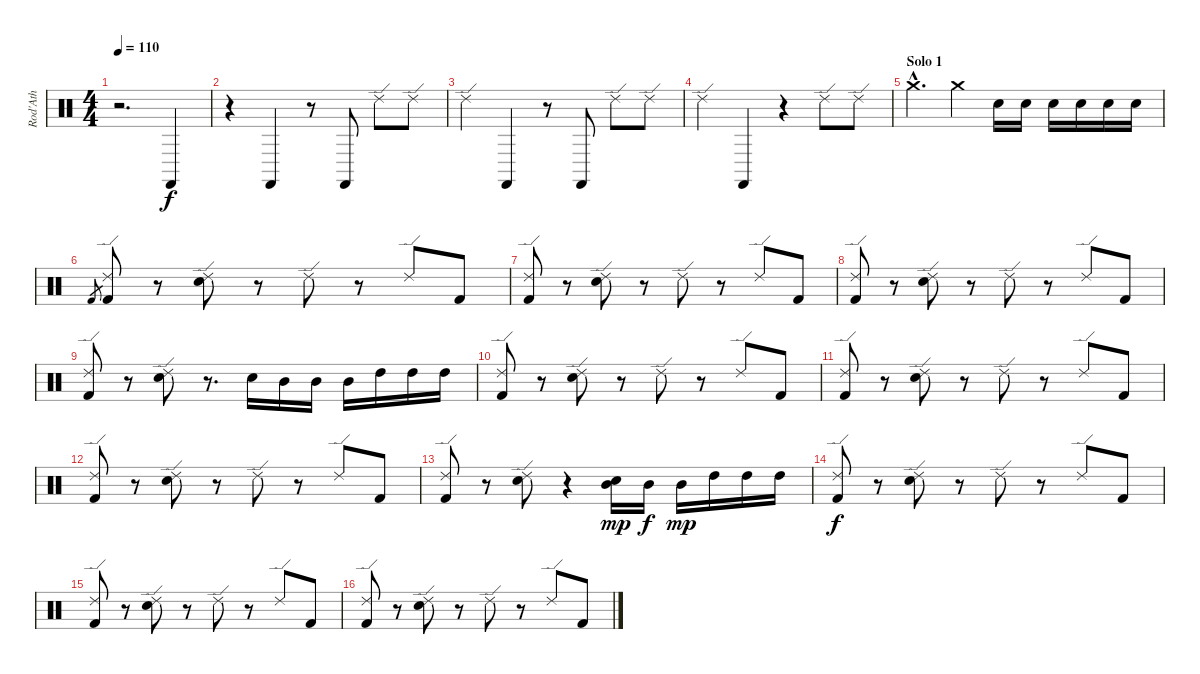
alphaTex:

\track ("Rod'Ath" "Rod'Ath") {instrument percussion}
\staff {score}
\articulation defaults
\ts (4 4)
\tempo 110
\clef neutral
\ks c
r.2{d dy f} "Castanets (hit)".4 |
r.4 "Castanets (hit)".4 r.8 "Castanets (hit)".8 "Ride (edge) 2".8 "Ride (edge) 2".8 |
"Ride (edge) 2".4 "Castanets (hit)".4 r.8 "Castanets (hit)".8 "Ride (edge) 2".8 "Ride (edge) 2".8 |
"Ride (edge) 2".4 "Castanets (hit)".4 r.4 "Ride (edge) 2".8 "Ride (edge) 2".8 |
\section ("" "Solo 1")
"Crash medium (hit)"{hac}.4{d} "Crash medium (hit)".4 "Electric Snare (hit)".16 "Electric Snare (hit)".16 "Electric Snare (hit)".16 "Electric Snare (hit)".16 "Electric Snare (hit)".16 "Electric Snare (hit)".16 |
"Kick (hit) 2".8{gr} ("Kick (hit) 2" "Ride (edge) 2").8 r.8 ("Electric Snare (hit)" "Ride (edge) 2").8 r.8 "Ride (edge) 2".8 r.8 "Ride (edge) 2".8 "Kick (hit) 2".8 |
("Kick (hit) 2" "Ride (edge) 2").8 r.8 ("Electric Snare (hit)" "Ride (edge) 2").8 r.8 "Ride (edge) 2".8 r.8 "Ride (edge) 2".8 "Kick (hit) 2".8 |
("Kick (hit) 2" "Ride (edge) 2").8 r.8 ("Electric Snare (hit)" "Ride (edge) 2").8 r.8 "Ride (edge) 2".8 r.8 "Ride (edge) 2".8 "Kick (hit) 2".8 |
("Kick (hit) 2" "Ride (edge) 2").8 r.8 ("Electric Snare (hit)" "Ride (edge) 2").8 r.8{d} "Electric Snare (hit)".16 "Mid Tom (hit)".16 "Mid Tom (hit)".16 "Mid Tom (hit)".16 "High Tom (hit)".16 "High Tom (hit)".16 "High Tom (hit)".16 |
("Kick (hit) 2" "Ride (edge) 2").8 r.8 ("Electric Snare (hit)" "Ride (edge) 2").8 r.8 "Ride (edge) 2".8 r.8 "Ride (edge) 2".8 "Kick (hit) 2".8 |
("Kick (hit) 2" "Ride (edge) 2").8 r.8 ("Electric Snare (hit)" "Ride (edge) 2").8 r.8 "Ride (edge) 2".8 r.8 "Ride (edge) 2".8 "Kick (hit) 2".8 |
("Kick (hit) 2" "Ride (edge) 2").8 r.8 ("Electric Snare (hit)" "Ride (edge) 2").8 r.8 "Ride (edge) 2".8 r.8 "Ride (edge) 2".8 "Kick (hit) 2".8 |
("Kick (hit) 2" "Ride (edge) 2").8 r.8 ("Electric Snare (hit)" "Ride (edge) 2").8 r.4 ("Mid Tom (hit)" "Electric Snare (hit)").16{dy mp} "Mid Tom (hit)".16{dy f} "Mid Tom (hit)".16{dy mp} "High Tom (hit)".16 "High Tom (hit)".16 "High Tom (hit)".16 |
("Kick (hit) 2" "Ride (edge) 2").8{dy f} r.8 ("Electric Snare (hit)" "Ride (edge) 2").8 r.8 "Ride (edge) 2".8 r.8 "Ride (edge) 2".8 "Kick (hit) 2".8 |
("Kick (hit) 2" "Ride (edge) 2").8 r.8 ("Electric Snare (hit)" "Ride (edge) 2").8 r.8 "Ride (edge) 2".8 r.8 "Ride (edge) 2".8 "Kick (hit) 2".8 |
("Kick (hit) 2" "Ride (edge) 2").8 r.8 ("Electric Snare (hit)" "Ride (edge) 2").8 r.8 "Ride (edge) 2".8 r.8 "Ride (edge) 2".8 "Kick (hit) 2".8
